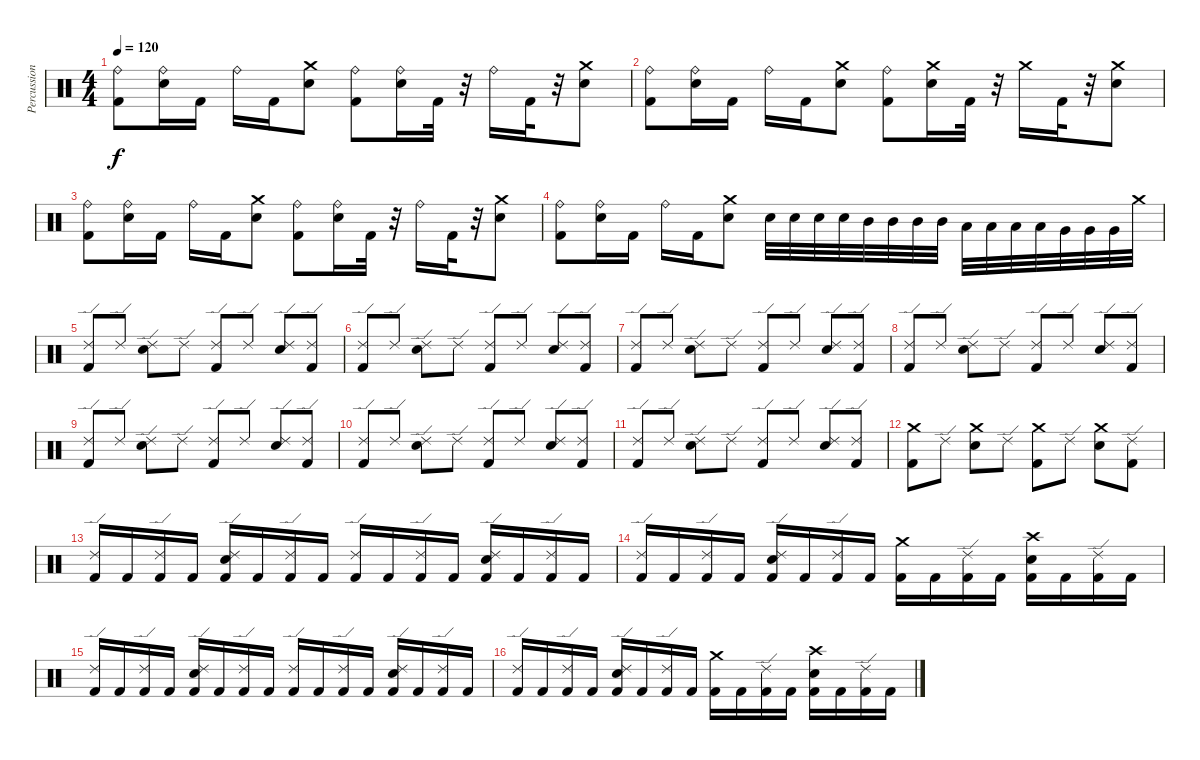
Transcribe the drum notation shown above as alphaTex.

\track ("Percussions" "Percussion") {instrument percussion}
\staff {score}
\articulation defaults
\ts (4 4)
\tempo 120
\clef neutral
\ks c
("Ride (bell)" "Kick (hit) 2").8{dy f} ("Ride (bell)" "Electric Snare (hit)").16 "Kick (hit) 2".16 "Ride (bell)".16 "Kick (hit) 2".16 ("Crash medium (hit)" "Electric Snare (hit)").8 ("Ride (bell)" "Kick (hit) 2").8 ("Ride (bell)" "Electric Snare (hit)").16 "Kick (hit) 2".32 r.32 "Ride (bell)".16 "Kick (hit) 2".32 r.32 ("Crash medium (hit)" "Electric Snare (hit)").8 |
("Ride (bell)" "Kick (hit) 2").8 ("Ride (bell)" "Electric Snare (hit)").16 "Kick (hit) 2".16 "Ride (bell)".16 "Kick (hit) 2".16 ("Crash medium (hit)" "Electric Snare (hit)").8 ("Ride (bell)" "Kick (hit) 2").8 ("Crash medium (hit)" "Electric Snare (hit)").16 "Kick (hit) 2".32 r.32 "Crash medium (hit)".16 "Kick (hit) 2".32 r.32 ("Crash medium (hit)" "Electric Snare (hit)").8 |
("Ride (bell)" "Kick (hit) 2").8 ("Ride (bell)" "Electric Snare (hit)").16 "Kick (hit) 2".16 "Ride (bell)".16 "Kick (hit) 2".16 ("Crash medium (hit)" "Electric Snare (hit)").8 ("Ride (bell)" "Kick (hit) 2").8 ("Ride (bell)" "Electric Snare (hit)").16 "Kick (hit) 2".32 r.32 "Ride (bell)".16 "Kick (hit) 2".32 r.32 ("Crash medium (hit)" "Electric Snare (hit)").8 |
("Ride (bell)" "Kick (hit) 2").8 ("Ride (bell)" "Electric Snare (hit)").16 "Kick (hit) 2".16 "Ride (bell)".16 "Kick (hit) 2".16 ("Crash medium (hit)" "Electric Snare (hit)").8 "Snare (hit) 2".32 "Snare (hit) 2".32 "Snare (hit) 2".32 "Snare (hit) 2".32 "Mid Tom (hit)".32 "Mid Tom (hit)".32 "Mid Tom (hit)".32 "Mid Tom (hit)".32 "Low Tom (hit)".32 "Low Tom (hit)".32 "Low Tom (hit)".32 "Low Tom (hit)".32 "Very Low Tom (hit)".32 "Very Low Tom (hit)".32 "Very Low Tom (hit)".32 "Crash medium (hit)".32 |
("Ride (edge) 2" "Kick (hit) 2").8 "Ride (edge) 2".8 ("Ride (edge) 2" "Electric Snare (hit)").8 "Ride (edge) 2".8 ("Ride (edge) 2" "Kick (hit) 2").8 "Ride (edge) 2".8 ("Ride (edge) 2" "Electric Snare (hit)").8 ("Ride (edge) 2" "Kick (hit) 2").8 |
("Ride (edge) 2" "Kick (hit) 2").8 "Ride (edge) 2".8 ("Ride (edge) 2" "Electric Snare (hit)").8 "Ride (edge) 2".8 ("Ride (edge) 2" "Kick (hit) 2").8 "Ride (edge) 2".8 ("Ride (edge) 2" "Electric Snare (hit)").8 ("Ride (edge) 2" "Kick (hit) 2").8 |
("Ride (edge) 2" "Kick (hit) 2").8 "Ride (edge) 2".8 ("Ride (edge) 2" "Electric Snare (hit)").8 "Ride (edge) 2".8 ("Ride (edge) 2" "Kick (hit) 2").8 "Ride (edge) 2".8 ("Ride (edge) 2" "Electric Snare (hit)").8 ("Ride (edge) 2" "Kick (hit) 2").8 |
("Ride (edge) 2" "Kick (hit) 2").8 "Ride (edge) 2".8 ("Ride (edge) 2" "Electric Snare (hit)").8 "Ride (edge) 2".8 ("Ride (edge) 2" "Kick (hit) 2").8 "Ride (edge) 2".8 ("Ride (edge) 2" "Electric Snare (hit)").8 ("Ride (edge) 2" "Kick (hit) 2").8 |
("Ride (edge) 2" "Kick (hit) 2").8 "Ride (edge) 2".8 ("Ride (edge) 2" "Electric Snare (hit)").8 "Ride (edge) 2".8 ("Ride (edge) 2" "Kick (hit) 2").8 "Ride (edge) 2".8 ("Ride (edge) 2" "Electric Snare (hit)").8 ("Ride (edge) 2" "Kick (hit) 2").8 |
("Ride (edge) 2" "Kick (hit) 2").8 "Ride (edge) 2".8 ("Ride (edge) 2" "Electric Snare (hit)").8 "Ride (edge) 2".8 ("Ride (edge) 2" "Kick (hit) 2").8 "Ride (edge) 2".8 ("Ride (edge) 2" "Electric Snare (hit)").8 ("Ride (edge) 2" "Kick (hit) 2").8 |
("Ride (edge) 2" "Kick (hit) 2").8 "Ride (edge) 2".8 ("Ride (edge) 2" "Electric Snare (hit)").8 "Ride (edge) 2".8 ("Ride (edge) 2" "Kick (hit) 2").8 "Ride (edge) 2".8 ("Ride (edge) 2" "Electric Snare (hit)").8 ("Ride (edge) 2" "Kick (hit) 2").8 |
("Crash medium (hit)" "Kick (hit) 2").8 "Ride (edge) 2".8 ("Crash medium (hit)" "Electric Snare (hit)").8 "Ride (edge) 2".8 ("Crash medium (hit)" "Kick (hit) 2").8 "Ride (edge) 2".8 ("Crash medium (hit)" "Electric Snare (hit)").8 ("Ride (edge) 2" "Kick (hit) 2").8 |
("Kick (hit) 2" "Ride (edge) 2").16 "Kick (hit) 2".16 ("Kick (hit) 2" "Ride (edge) 2").16 "Kick (hit) 2".16 ("Kick (hit) 2" "Electric Snare (hit)" "Ride (edge) 2").16 "Kick (hit) 2".16 ("Kick (hit) 2" "Ride (edge) 2").16 "Kick (hit) 2".16 ("Kick (hit) 2" "Ride (edge) 2").16 "Kick (hit) 2".16 ("Kick (hit) 2" "Ride (edge) 2").16 "Kick (hit) 2".16 ("Kick (hit) 2" "Electric Snare (hit)" "Ride (edge) 2").16 "Kick (hit) 2".16 ("Kick (hit) 2" "Ride (edge) 2").16 "Kick (hit) 2".16 |
("Kick (hit) 2" "Ride (edge) 2").16 "Kick (hit) 2".16 ("Kick (hit) 2" "Ride (edge) 2").16 "Kick (hit) 2".16 ("Kick (hit) 2" "Electric Snare (hit)" "Ride (edge) 2").16 "Kick (hit) 2".16 ("Kick (hit) 2" "Ride (edge) 2").16 "Kick (hit) 2".16 ("Kick (hit) 2" "Crash medium (hit)").16 "Kick (hit) 2".16 ("Kick (hit) 2" "Ride (edge) 2").16 "Kick (hit) 2".16 ("Kick (hit) 2" "Electric Snare (hit)" "Crash high (hit)").16 "Kick (hit) 2".16 ("Kick (hit) 2" "Ride (edge) 2").16 "Kick (hit) 2".16 |
("Kick (hit) 2" "Ride (edge) 2").16 "Kick (hit) 2".16 ("Kick (hit) 2" "Ride (edge) 2").16 "Kick (hit) 2".16 ("Kick (hit) 2" "Electric Snare (hit)" "Ride (edge) 2").16 "Kick (hit) 2".16 ("Kick (hit) 2" "Ride (edge) 2").16 "Kick (hit) 2".16 ("Kick (hit) 2" "Ride (edge) 2").16 "Kick (hit) 2".16 ("Kick (hit) 2" "Ride (edge) 2").16 "Kick (hit) 2".16 ("Kick (hit) 2" "Electric Snare (hit)" "Ride (edge) 2").16 "Kick (hit) 2".16 ("Kick (hit) 2" "Ride (edge) 2").16 "Kick (hit) 2".16 |
("Kick (hit) 2" "Ride (edge) 2").16 "Kick (hit) 2".16 ("Kick (hit) 2" "Ride (edge) 2").16 "Kick (hit) 2".16 ("Kick (hit) 2" "Electric Snare (hit)" "Ride (edge) 2").16 "Kick (hit) 2".16 ("Kick (hit) 2" "Ride (edge) 2").16 "Kick (hit) 2".16 ("Kick (hit) 2" "Crash medium (hit)").16 "Kick (hit) 2".16 ("Kick (hit) 2" "Ride (edge) 2").16 "Kick (hit) 2".16 ("Kick (hit) 2" "Electric Snare (hit)" "Crash high (hit)").16 "Kick (hit) 2".16 ("Kick (hit) 2" "Ride (edge) 2").16 "Kick (hit) 2".16
